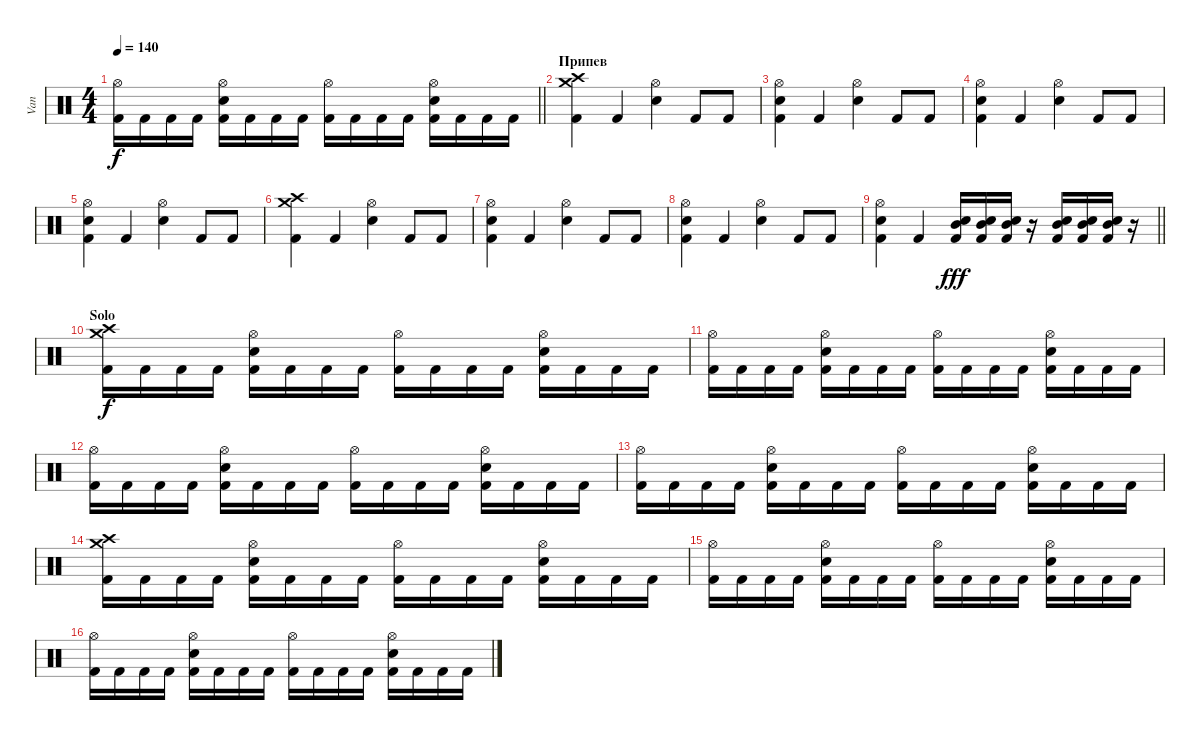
\track ("Van" "Van") {instrument percussion}
\staff {score}
\articulation defaults
\ts (4 4)
\tempo 140
\clef neutral
\barLineRight lightlight
\ks c
("Hi-Hat (open)" "Kick (hit) 2").16{dy f} "Kick (hit) 2".16 "Kick (hit) 2".16 "Kick (hit) 2".16 ("Hi-Hat (open)" "Electric Snare (hit)" "Kick (hit) 2").16 "Kick (hit) 2".16 "Kick (hit) 2".16 "Kick (hit) 2".16 ("Hi-Hat (open)" "Kick (hit) 2").16 "Kick (hit) 2".16 "Kick (hit) 2".16 "Kick (hit) 2".16 ("Hi-Hat (open)" "Electric Snare (hit)" "Kick (hit) 2").16 "Kick (hit) 2".16 "Kick (hit) 2".16 "Kick (hit) 2".16 |
\section ("" "Припев")
("Crash medium (hit)" "Crash high (hit)" "Kick (hit) 2").4 "Kick (hit) 2".4 ("Hi-Hat (open)" "Electric Snare (hit)").4 "Kick (hit) 2".8 "Kick (hit) 2".8 |
("Hi-Hat (open)" "Electric Snare (hit)" "Kick (hit) 2").4 "Kick (hit) 2".4 ("Hi-Hat (open)" "Electric Snare (hit)").4 "Kick (hit) 2".8 "Kick (hit) 2".8 |
("Hi-Hat (open)" "Electric Snare (hit)" "Kick (hit) 2").4 "Kick (hit) 2".4 ("Hi-Hat (open)" "Electric Snare (hit)").4 "Kick (hit) 2".8 "Kick (hit) 2".8 |
("Hi-Hat (open)" "Electric Snare (hit)" "Kick (hit) 2").4 "Kick (hit) 2".4 ("Hi-Hat (open)" "Electric Snare (hit)").4 "Kick (hit) 2".8 "Kick (hit) 2".8 |
("Crash medium (hit)" "Crash high (hit)" "Kick (hit) 2").4 "Kick (hit) 2".4 ("Hi-Hat (open)" "Electric Snare (hit)").4 "Kick (hit) 2".8 "Kick (hit) 2".8 |
("Hi-Hat (open)" "Electric Snare (hit)" "Kick (hit) 2").4 "Kick (hit) 2".4 ("Hi-Hat (open)" "Electric Snare (hit)").4 "Kick (hit) 2".8 "Kick (hit) 2".8 |
("Hi-Hat (open)" "Electric Snare (hit)" "Kick (hit) 2").4 "Kick (hit) 2".4 ("Hi-Hat (open)" "Electric Snare (hit)").4 "Kick (hit) 2".8 "Kick (hit) 2".8 |
\barLineRight lightlight
("Hi-Hat (open)" "Electric Snare (hit)" "Kick (hit) 2").4 "Kick (hit) 2".4 ("Mid Tom (hit)" "Electric Snare (hit)" "Kick (hit) 2").16{dy fff} ("Mid Tom (hit)" "Electric Snare (hit)" "Kick (hit) 2").16 ("Mid Tom (hit)" "Electric Snare (hit)" "Kick (hit) 2").16 r.16 ("Mid Tom (hit)" "Electric Snare (hit)" "Kick (hit) 2").16 ("Mid Tom (hit)" "Electric Snare (hit)" "Kick (hit) 2").16 ("Mid Tom (hit)" "Electric Snare (hit)" "Kick (hit) 2").16 r.16 |
\section ("" "Solo")
("Crash high (hit)" "Crash medium (hit)" "Kick (hit) 2").16{dy f} "Kick (hit) 2".16 "Kick (hit) 2".16 "Kick (hit) 2".16 ("Hi-Hat (open)" "Electric Snare (hit)" "Kick (hit) 2").16 "Kick (hit) 2".16 "Kick (hit) 2".16 "Kick (hit) 2".16 ("Hi-Hat (open)" "Kick (hit) 2").16 "Kick (hit) 2".16 "Kick (hit) 2".16 "Kick (hit) 2".16 ("Hi-Hat (open)" "Electric Snare (hit)" "Kick (hit) 2").16 "Kick (hit) 2".16 "Kick (hit) 2".16 "Kick (hit) 2".16 |
("Hi-Hat (open)" "Kick (hit) 2").16 "Kick (hit) 2".16 "Kick (hit) 2".16 "Kick (hit) 2".16 ("Hi-Hat (open)" "Electric Snare (hit)" "Kick (hit) 2").16 "Kick (hit) 2".16 "Kick (hit) 2".16 "Kick (hit) 2".16 ("Hi-Hat (open)" "Kick (hit) 2").16 "Kick (hit) 2".16 "Kick (hit) 2".16 "Kick (hit) 2".16 ("Hi-Hat (open)" "Electric Snare (hit)" "Kick (hit) 2").16 "Kick (hit) 2".16 "Kick (hit) 2".16 "Kick (hit) 2".16 |
("Hi-Hat (open)" "Kick (hit) 2").16 "Kick (hit) 2".16 "Kick (hit) 2".16 "Kick (hit) 2".16 ("Hi-Hat (open)" "Electric Snare (hit)" "Kick (hit) 2").16 "Kick (hit) 2".16 "Kick (hit) 2".16 "Kick (hit) 2".16 ("Hi-Hat (open)" "Kick (hit) 2").16 "Kick (hit) 2".16 "Kick (hit) 2".16 "Kick (hit) 2".16 ("Hi-Hat (open)" "Electric Snare (hit)" "Kick (hit) 2").16 "Kick (hit) 2".16 "Kick (hit) 2".16 "Kick (hit) 2".16 |
("Hi-Hat (open)" "Kick (hit) 2").16 "Kick (hit) 2".16 "Kick (hit) 2".16 "Kick (hit) 2".16 ("Hi-Hat (open)" "Electric Snare (hit)" "Kick (hit) 2").16 "Kick (hit) 2".16 "Kick (hit) 2".16 "Kick (hit) 2".16 ("Hi-Hat (open)" "Kick (hit) 2").16 "Kick (hit) 2".16 "Kick (hit) 2".16 "Kick (hit) 2".16 ("Hi-Hat (open)" "Electric Snare (hit)" "Kick (hit) 2").16 "Kick (hit) 2".16 "Kick (hit) 2".16 "Kick (hit) 2".16 |
("Crash high (hit)" "Crash medium (hit)" "Kick (hit) 2").16 "Kick (hit) 2".16 "Kick (hit) 2".16 "Kick (hit) 2".16 ("Hi-Hat (open)" "Electric Snare (hit)" "Kick (hit) 2").16 "Kick (hit) 2".16 "Kick (hit) 2".16 "Kick (hit) 2".16 ("Hi-Hat (open)" "Kick (hit) 2").16 "Kick (hit) 2".16 "Kick (hit) 2".16 "Kick (hit) 2".16 ("Hi-Hat (open)" "Electric Snare (hit)" "Kick (hit) 2").16 "Kick (hit) 2".16 "Kick (hit) 2".16 "Kick (hit) 2".16 |
("Hi-Hat (open)" "Kick (hit) 2").16 "Kick (hit) 2".16 "Kick (hit) 2".16 "Kick (hit) 2".16 ("Hi-Hat (open)" "Electric Snare (hit)" "Kick (hit) 2").16 "Kick (hit) 2".16 "Kick (hit) 2".16 "Kick (hit) 2".16 ("Hi-Hat (open)" "Kick (hit) 2").16 "Kick (hit) 2".16 "Kick (hit) 2".16 "Kick (hit) 2".16 ("Hi-Hat (open)" "Electric Snare (hit)" "Kick (hit) 2").16 "Kick (hit) 2".16 "Kick (hit) 2".16 "Kick (hit) 2".16 |
("Hi-Hat (open)" "Kick (hit) 2").16 "Kick (hit) 2".16 "Kick (hit) 2".16 "Kick (hit) 2".16 ("Hi-Hat (open)" "Electric Snare (hit)" "Kick (hit) 2").16 "Kick (hit) 2".16 "Kick (hit) 2".16 "Kick (hit) 2".16 ("Hi-Hat (open)" "Kick (hit) 2").16 "Kick (hit) 2".16 "Kick (hit) 2".16 "Kick (hit) 2".16 ("Hi-Hat (open)" "Electric Snare (hit)" "Kick (hit) 2").16 "Kick (hit) 2".16 "Kick (hit) 2".16 "Kick (hit) 2".16
